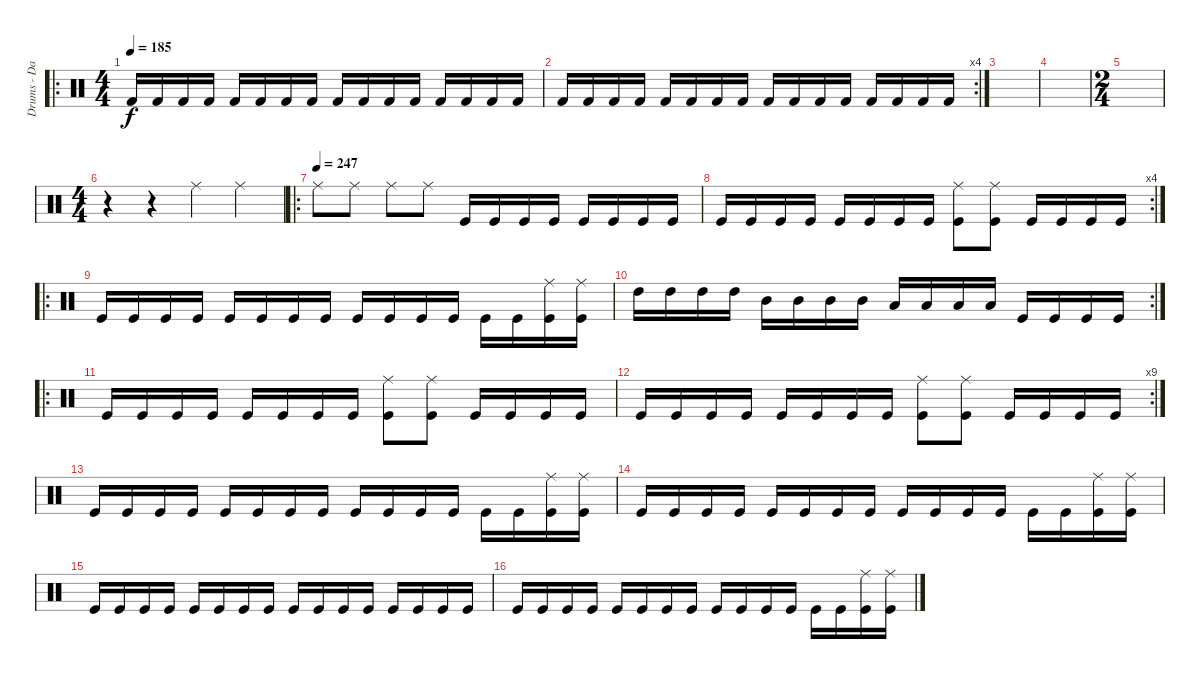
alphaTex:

\track ("Drums - Dave Lombardo" "Drums - Da") {instrument percussion}
\staff {score}
\articulation defaults
\ro
\ts (4 4)
\tempo 185
\clef neutral
\ks c "Kick (hit) 2".16{dy f} "Kick (hit) 2".16 "Kick (hit) 2".16 "Kick (hit) 2".16 "Kick (hit) 2".16 "Kick (hit) 2".16 "Kick (hit) 2".16 "Kick (hit) 2".16 "Kick (hit) 2".16 "Kick (hit) 2".16 "Kick (hit) 2".16 "Kick (hit) 2".16 "Kick (hit) 2".16 "Kick (hit) 2".16 "Kick (hit) 2".16 "Kick (hit) 2".16
|
\rc 4 "Kick (hit) 2".16 "Kick (hit) 2".16 "Kick (hit) 2".16 "Kick (hit) 2".16 "Kick (hit) 2".16 "Kick (hit) 2".16 "Kick (hit) 2".16 "Kick (hit) 2".16 "Kick (hit) 2".16 "Kick (hit) 2".16 "Kick (hit) 2".16 "Kick (hit) 2".16 "Kick (hit) 2".16 "Kick (hit) 2".16 "Kick (hit) 2".16 "Kick (hit) 2".16
|
|
|
\ts (2 4)
|
\ts (4 4)
r.4 r.4 "Ride (middle)".4 "Ride (middle)".4 |
\ro
\tempo (247)
"Ride (middle)".8 "Ride (middle)".8 "Ride (middle)".8 "Ride (middle)".8 "Kick (hit)".16 "Kick (hit)".16 "Kick (hit)".16 "Kick (hit)".16 "Kick (hit)".16 "Kick (hit)".16 "Kick (hit)".16 "Kick (hit)".16 |
\rc 4 "Kick (hit)".16 "Kick (hit)".16 "Kick (hit)".16 "Kick (hit)".16 "Kick (hit)".16 "Kick (hit)".16 "Kick (hit)".16 "Kick (hit)".16
("Ride (middle)" "Kick (hit)").8 ("Ride (middle)" "Kick (hit)").8 "Kick (hit)".16 "Kick (hit)".16 "Kick (hit)".16 "Kick (hit)".16 |
\ro "Kick (hit)".16 "Kick (hit)".16 "Kick (hit)".16 "Kick (hit)".16 "Kick (hit)".16 "Kick (hit)".16 "Kick (hit)".16 "Kick (hit)".16 "Kick (hit)".16 "Kick (hit)".16 "Kick (hit)".16 "Kick (hit)".16 "Kick (hit)".16 "Kick (hit)".16
("Kick (hit)" "Ride (middle)").16 ("Kick (hit)" "Ride (middle)").16 |
\rc 2 "High Tom (hit)".16 "High Tom (hit)".16 "High Tom (hit)".16 "High Tom (hit)".16 "Mid Tom (hit)".16 "Mid Tom (hit)".16 "Mid Tom (hit)".16 "Mid Tom (hit)".16 "Low Tom (hit)".16 "Low Tom (hit)".16 "Low Tom (hit)".16 "Low Tom (hit)".16 "Kick (hit)".16 "Kick (hit)".16 "Kick (hit)".16 "Kick (hit)".16
|
\ro "Kick (hit)".16 "Kick (hit)".16 "Kick (hit)".16 "Kick (hit)".16 "Kick (hit)".16 "Kick (hit)".16 "Kick (hit)".16 "Kick (hit)".16
("Ride (middle)" "Kick (hit)").8 ("Ride (middle)" "Kick (hit)").8 "Kick (hit)".16 "Kick (hit)".16 "Kick (hit)".16 "Kick (hit)".16 |
\rc 9 "Kick (hit)".16 "Kick (hit)".16 "Kick (hit)".16 "Kick (hit)".16 "Kick (hit)".16 "Kick (hit)".16 "Kick (hit)".16 "Kick (hit)".16
("Ride (middle)" "Kick (hit)").8 ("Ride (middle)" "Kick (hit)").8 "Kick (hit)".16 "Kick (hit)".16 "Kick (hit)".16 "Kick (hit)".16 |
"Kick (hit)".16 "Kick (hit)".16 "Kick (hit)".16 "Kick (hit)".16 "Kick (hit)".16 "Kick (hit)".16 "Kick (hit)".16 "Kick (hit)".16 "Kick (hit)".16 "Kick (hit)".16 "Kick (hit)".16 "Kick (hit)".16 "Kick (hit)".16 "Kick (hit)".16 ("Kick (hit)" "Ride (middle)").16 ("Kick (hit)" "Ride (middle)").16 |
"Kick (hit)".16 "Kick (hit)".16 "Kick (hit)".16 "Kick (hit)".16 "Kick (hit)".16 "Kick (hit)".16 "Kick (hit)".16 "Kick (hit)".16 "Kick (hit)".16 "Kick (hit)".16 "Kick (hit)".16 "Kick (hit)".16 "Kick (hit)".16 "Kick (hit)".16 ("Kick (hit)" "Ride (middle)").16 ("Kick (hit)" "Ride (middle)").16 |
"Kick (hit)".16 "Kick (hit)".16 "Kick (hit)".16 "Kick (hit)".16 "Kick (hit)".16 "Kick (hit)".16 "Kick (hit)".16 "Kick (hit)".16 "Kick (hit)".16 "Kick (hit)".16 "Kick (hit)".16 "Kick (hit)".16 "Kick (hit)".16 "Kick (hit)".16 "Kick (hit)".16 "Kick (hit)".16 |
"Kick (hit)".16 "Kick (hit)".16 "Kick (hit)".16 "Kick (hit)".16 "Kick (hit)".16 "Kick (hit)".16 "Kick (hit)".16 "Kick (hit)".16 "Kick (hit)".16 "Kick (hit)".16 "Kick (hit)".16 "Kick (hit)".16 "Kick (hit)".16 "Kick (hit)".16 ("Kick (hit)" "Ride (middle)").16 ("Kick (hit)" "Ride (middle)").16
